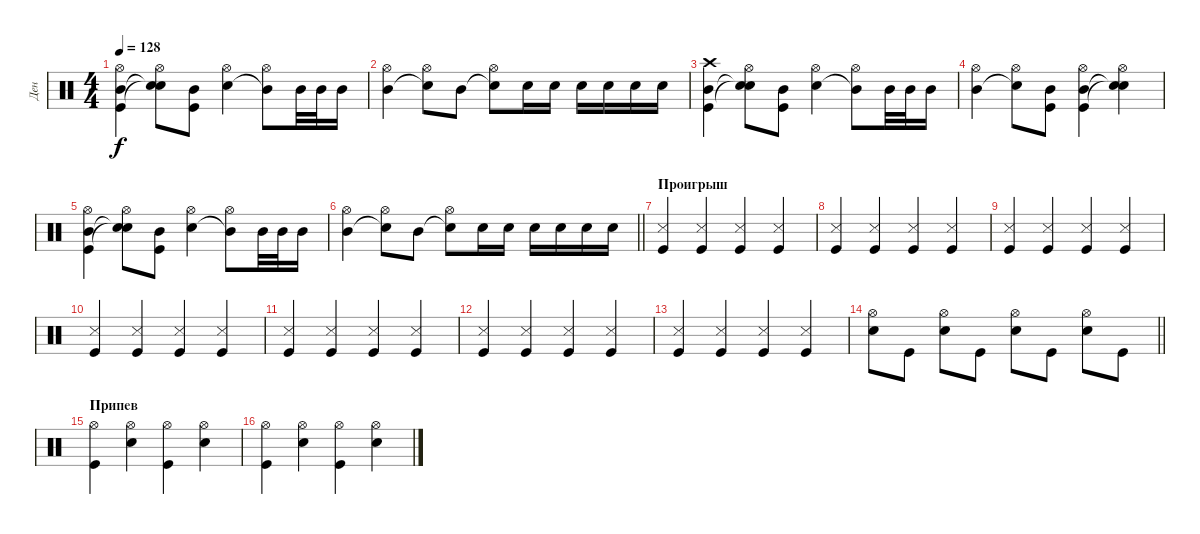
\track ("Ден" "Ден") {instrument percussion}
\staff
\articulation defaults
\ts (4 4)
\tempo 128
\clef neutral
\ks c
("Kick (hit)" "Mid Tom (hit)" "Hi-Hat (open)").4{dy f} ("Snare (hit)"{t} "Snare (hit)"{t} "Hi-Hat (open)").8 ("Mid Tom (hit)" "Kick (hit)").8 ("Snare (hit) 2" "Hi-Hat (open)").4 ("Mid Tom (hit)"{t} "Hi-Hat (open)").8 "Mid Tom (hit)".32 "Mid Tom (hit)".32 "Mid Tom (hit)".16 |
("Mid Tom (hit)" "Hi-Hat (open)").4 ("Snare (hit)"{t} "Hi-Hat (open)").8 "Mid Tom (hit)".8 ("Snare (hit)"{t} "Hi-Hat (open)").8 "Snare (hit) 2".16 "Snare (hit) 2".16 "Snare (hit) 2".16 "Snare (hit) 2".16 "Snare (hit) 2".16 "Snare (hit) 2".16 |
("Kick (hit)" "Mid Tom (hit)" "Crash high (hit)").4 ("Snare (hit)"{t} "Snare (hit)"{t} "Hi-Hat (open)").8 ("Mid Tom (hit)" "Kick (hit)").8 ("Snare (hit) 2" "Hi-Hat (open)").4 ("Mid Tom (hit)"{t} "Hi-Hat (open)").8 "Mid Tom (hit)".32 "Mid Tom (hit)".32 "Mid Tom (hit)".16 |
("Mid Tom (hit)" "Hi-Hat (open)").4 ("Snare (hit)"{t} "Hi-Hat (open)").8 ("Mid Tom (hit)" "Kick (hit)").8 ("Kick (hit)" "Mid Tom (hit)" "Hi-Hat (open)").4 ("Snare (hit)"{t} "Snare (hit)"{t} "Hi-Hat (open)").4 |
("Kick (hit)" "Mid Tom (hit)" "Hi-Hat (open)").4 ("Snare (hit)"{t} "Snare (hit)"{t} "Hi-Hat (open)").8 ("Mid Tom (hit)" "Kick (hit)").8 ("Snare (hit) 2" "Hi-Hat (open)").4 ("Mid Tom (hit)"{t} "Hi-Hat (open)").8 "Mid Tom (hit)".32 "Mid Tom (hit)".32 "Mid Tom (hit)".16 |
\barLineRight lightlight
("Mid Tom (hit)" "Hi-Hat (open)").4 ("Snare (hit)"{t} "Hi-Hat (open)").8 "Mid Tom (hit)".8 ("Snare (hit)"{t} "Hi-Hat (open)").8 "Snare (hit) 2".16 "Snare (hit) 2".16 "Snare (hit) 2".16 "Snare (hit) 2".16 "Snare (hit) 2".16 "Snare (hit) 2".16 |
\section ("" "Проигрыш")
("Kick (hit)" "Snare (side stick) 3").4 ("Kick (hit)" "Snare (side stick) 3").4 ("Kick (hit)" "Snare (side stick) 3").4 ("Kick (hit)" "Snare (side stick) 3").4 |
("Kick (hit)" "Snare (side stick) 3").4 ("Kick (hit)" "Snare (side stick) 3").4 ("Kick (hit)" "Snare (side stick) 3").4 ("Kick (hit)" "Snare (side stick) 3").4 |
("Kick (hit)" "Snare (side stick) 3").4 ("Kick (hit)" "Snare (side stick) 3").4 ("Kick (hit)" "Snare (side stick) 3").4 ("Kick (hit)" "Snare (side stick) 3").4 |
("Kick (hit)" "Snare (side stick) 3").4 ("Kick (hit)" "Snare (side stick) 3").4 ("Kick (hit)" "Snare (side stick) 3").4 ("Kick (hit)" "Snare (side stick) 3").4 |
("Kick (hit)" "Snare (side stick) 3").4 ("Kick (hit)" "Snare (side stick) 3").4 ("Kick (hit)" "Snare (side stick) 3").4 ("Kick (hit)" "Snare (side stick) 3").4 |
("Kick (hit)" "Snare (side stick) 3").4 ("Kick (hit)" "Snare (side stick) 3").4 ("Kick (hit)" "Snare (side stick) 3").4 ("Kick (hit)" "Snare (side stick) 3").4 |
("Kick (hit)" "Snare (side stick) 3").4 ("Kick (hit)" "Snare (side stick) 3").4 ("Kick (hit)" "Snare (side stick) 3").4 ("Kick (hit)" "Snare (side stick) 3").4 |
\barLineRight lightlight
("Snare (hit) 2" "Hi-Hat (open)").8 "Kick (hit)".8 ("Snare (hit) 2" "Hi-Hat (open)").8 "Kick (hit)".8 ("Snare (hit) 2" "Hi-Hat (open)").8 "Kick (hit)".8 ("Snare (hit) 2" "Hi-Hat (open)").8 "Kick (hit)".8 |
\section ("" "Припев")
("Kick (hit)" "Hi-Hat (open)").4 ("Snare (hit) 2" "Hi-Hat (open)").4 ("Kick (hit)" "Hi-Hat (open)").4 ("Snare (hit) 2" "Hi-Hat (open)").4 |
("Kick (hit)" "Hi-Hat (open)").4 ("Snare (hit) 2" "Hi-Hat (open)").4 ("Kick (hit)" "Hi-Hat (open)").4 ("Snare (hit) 2" "Hi-Hat (open)").4
